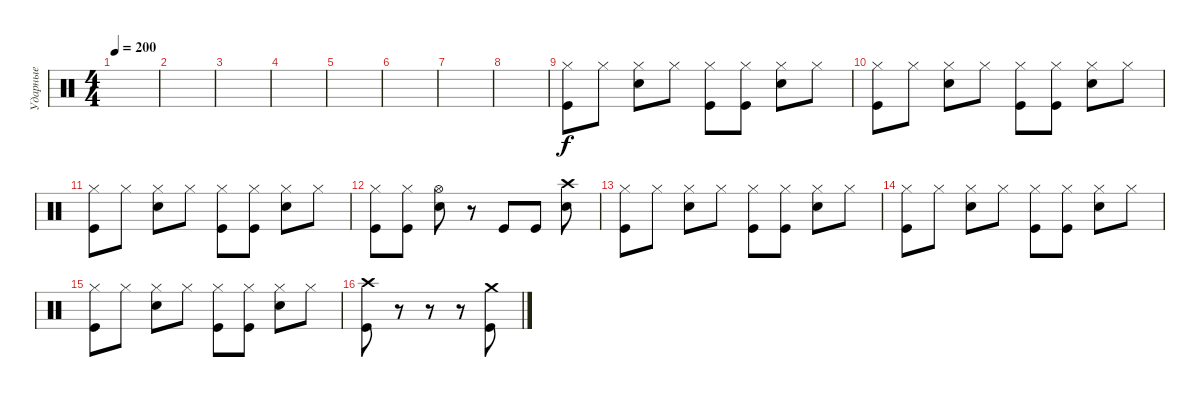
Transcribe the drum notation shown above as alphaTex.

\track ("Ударные" "Ударные") {instrument percussion}
\staff {score}
\articulation defaults
\ts (4 4)
\tempo 200
\clef neutral
\ks c
|
|
|
|
|
|
|
|
("Kick (hit)" "Hi-Hat (closed)").8 "Hi-Hat (closed)".8 ("Electric Snare (hit)" "Hi-Hat (closed)").8 "Hi-Hat (closed)".8 ("Kick (hit)" "Hi-Hat (closed)").8 ("Kick (hit)" "Hi-Hat (closed)").8 ("Electric Snare (hit)" "Hi-Hat (closed)").8 "Hi-Hat (closed)".8 |
("Kick (hit)" "Hi-Hat (closed)").8 "Hi-Hat (closed)".8 ("Electric Snare (hit)" "Hi-Hat (closed)").8 "Hi-Hat (closed)".8 ("Kick (hit)" "Hi-Hat (closed)").8 ("Kick (hit)" "Hi-Hat (closed)").8 ("Electric Snare (hit)" "Hi-Hat (closed)").8 "Hi-Hat (closed)".8 |
("Kick (hit)" "Hi-Hat (closed)").8 "Hi-Hat (closed)".8 ("Electric Snare (hit)" "Hi-Hat (closed)").8 "Hi-Hat (closed)".8 ("Kick (hit)" "Hi-Hat (closed)").8 ("Kick (hit)" "Hi-Hat (closed)").8 ("Electric Snare (hit)" "Hi-Hat (closed)").8 "Hi-Hat (closed)".8 |
("Kick (hit)" "Hi-Hat (closed)").8 ("Kick (hit)" "Hi-Hat (closed)").8 ("Electric Snare (hit)" "Hi-Hat (open)").8 r.8 "Kick (hit)".8 "Kick (hit)".8 ("Electric Snare (hit)" "Crash high (hit)").8 |
("Kick (hit)" "Hi-Hat (closed)").8 "Hi-Hat (closed)".8 ("Electric Snare (hit)" "Hi-Hat (closed)").8 "Hi-Hat (closed)".8 ("Kick (hit)" "Hi-Hat (closed)").8 ("Kick (hit)" "Hi-Hat (closed)").8 ("Electric Snare (hit)" "Hi-Hat (closed)").8 "Hi-Hat (closed)".8 |
("Kick (hit)" "Hi-Hat (closed)").8 "Hi-Hat (closed)".8 ("Electric Snare (hit)" "Hi-Hat (closed)").8 "Hi-Hat (closed)".8 ("Kick (hit)" "Hi-Hat (closed)").8 ("Kick (hit)" "Hi-Hat (closed)").8 ("Electric Snare (hit)" "Hi-Hat (closed)").8 "Hi-Hat (closed)".8 |
("Kick (hit)" "Hi-Hat (closed)").8 "Hi-Hat (closed)".8 ("Electric Snare (hit)" "Hi-Hat (closed)").8 "Hi-Hat (closed)".8 ("Kick (hit)" "Hi-Hat (closed)").8 ("Kick (hit)" "Hi-Hat (closed)").8 ("Electric Snare (hit)" "Hi-Hat (closed)").8 "Hi-Hat (closed)".8 |
("Kick (hit)" "Crash high (hit)").8 r.8 r.8 r.8 ("Kick (hit)" "Crash medium (hit)").8
